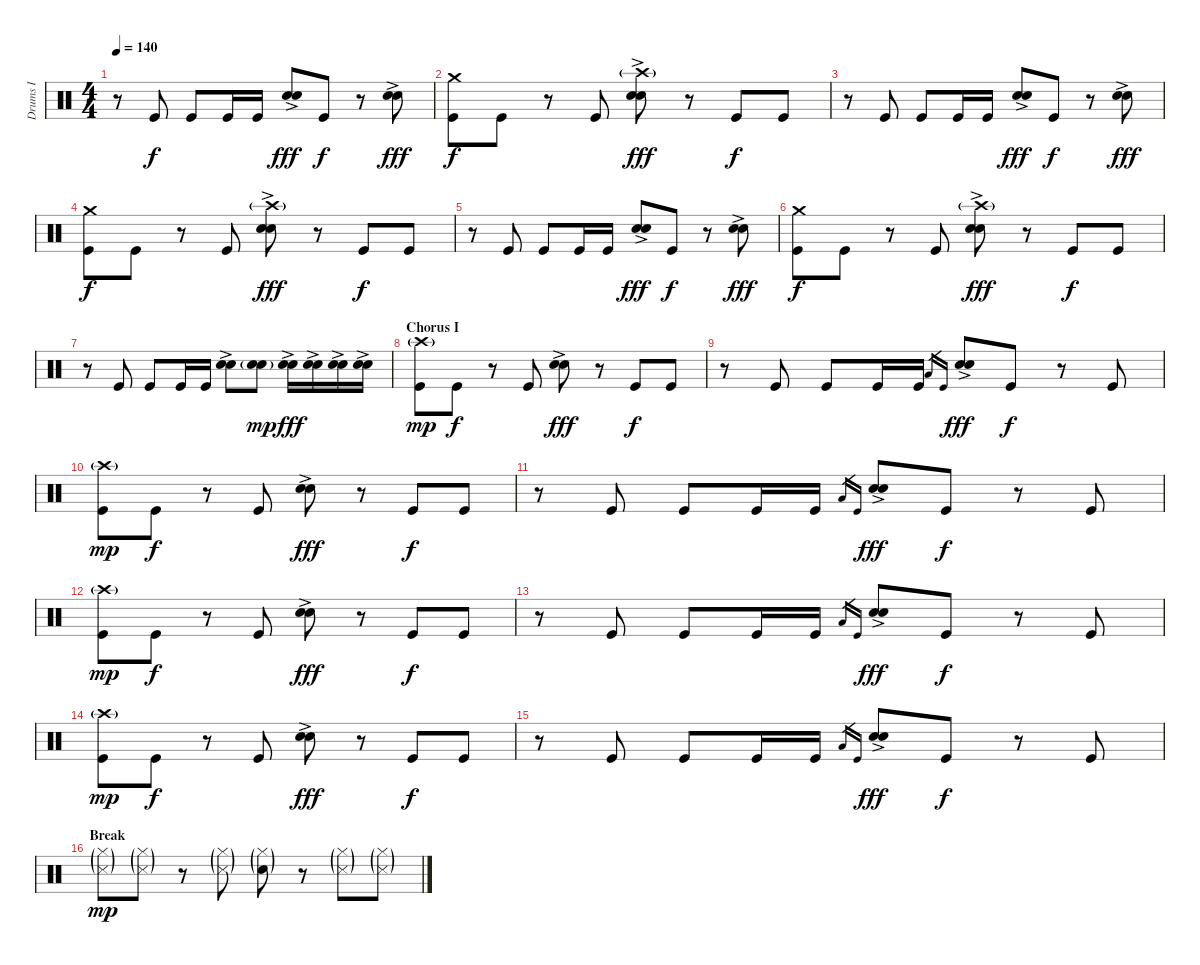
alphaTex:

\track ("Drums I" "Drums I") {instrument percussion}
\staff {score}
\articulation defaults
\ts (4 4)
\tempo 140
\clef neutral
\ks c
r.8{dy f} "Kick (hit)".8 "Kick (hit)".8 "Kick (hit)".16 "Kick (hit)".16 ("Electric Snare (hit)" "Snare (hit) 2"{ac}).8{dy fff} "Kick (hit)".8{dy f} r.8 ("Electric Snare (hit)" "Snare (hit) 2"{ac}).8{dy fff} |
("Crash medium (hit)" "Kick (hit)").8{dy f} "Kick (hit)".8 r.8 "Kick (hit)".8 ("Crash high (hit)"{g} "Electric Snare (hit)" "Snare (hit) 2"{ac}).8{dy fff} r.8 "Kick (hit)".8{dy f} "Kick (hit)".8 |
r.8 "Kick (hit)".8 "Kick (hit)".8 "Kick (hit)".16 "Kick (hit)".16 ("Electric Snare (hit)" "Snare (hit) 2"{ac}).8{dy fff} "Kick (hit)".8{dy f} r.8 ("Electric Snare (hit)" "Snare (hit) 2"{ac}).8{dy fff} |
("Crash medium (hit)" "Kick (hit)").8{dy f} "Kick (hit)".8 r.8 "Kick (hit)".8 ("Crash high (hit)"{g} "Electric Snare (hit)" "Snare (hit) 2"{ac}).8{dy fff} r.8 "Kick (hit)".8{dy f} "Kick (hit)".8 |
r.8 "Kick (hit)".8 "Kick (hit)".8 "Kick (hit)".16 "Kick (hit)".16 ("Electric Snare (hit)" "Snare (hit) 2"{ac}).8{dy fff} "Kick (hit)".8{dy f} r.8 ("Electric Snare (hit)" "Snare (hit) 2"{ac}).8{dy fff} |
("Crash medium (hit)" "Kick (hit)").8{dy f} "Kick (hit)".8 r.8 "Kick (hit)".8 ("Crash high (hit)"{g} "Electric Snare (hit)" "Snare (hit) 2"{ac}).8{dy fff} r.8 "Kick (hit)".8{dy f} "Kick (hit)".8 |
r.8 "Kick (hit)".8 "Kick (hit)".8 "Kick (hit)".16 "Kick (hit)".16 ("Electric Snare (hit)" "Snare (hit) 2"{ac}).8 ("Electric Snare (hit)"{g} "Snare (hit) 2"{g}).8{dy mp} ("Electric Snare (hit)"{ac} "Snare (hit) 2").16{dy fff} ("Electric Snare (hit)" "Snare (hit) 2"{ac}).16 ("Electric Snare (hit)"{ac} "Snare (hit) 2").16 ("Electric Snare (hit)"{ac} "Snare (hit) 2").16 |
\section ("" "Chorus I")
("Crash high (hit)"{g} "Kick (hit)").8{dy mp} "Kick (hit)".8{dy f} r.8 "Kick (hit)".8 ("Electric Snare (hit)"{ac} "Snare (hit) 2").8{dy fff} r.8 "Kick (hit)".8{dy f} "Kick (hit)".8 |
r.8 "Kick (hit)".8 "Kick (hit)".8 "Kick (hit)".16 "Kick (hit)".16 "Low Floor Tom (hit)".16{gr} "Kick (hit)".16{gr} ("Electric Snare (hit)"{ac} "Snare (hit) 2").8{dy fff} "Kick (hit)".8{dy f} r.8 "Kick (hit)".8 |
("Crash high (hit)"{g} "Kick (hit)").8{dy mp} "Kick (hit)".8{dy f} r.8 "Kick (hit)".8 ("Electric Snare (hit)"{ac} "Snare (hit) 2").8{dy fff} r.8 "Kick (hit)".8{dy f} "Kick (hit)".8 |
r.8 "Kick (hit)".8 "Kick (hit)".8 "Kick (hit)".16 "Kick (hit)".16 "Low Floor Tom (hit)".16{gr} "Kick (hit)".16{gr} ("Electric Snare (hit)"{ac} "Snare (hit) 2").8{dy fff} "Kick (hit)".8{dy f} r.8 "Kick (hit)".8 |
("Crash high (hit)"{g} "Kick (hit)").8{dy mp} "Kick (hit)".8{dy f} r.8 "Kick (hit)".8 ("Electric Snare (hit)"{ac} "Snare (hit) 2").8{dy fff} r.8 "Kick (hit)".8{dy f} "Kick (hit)".8 |
r.8 "Kick (hit)".8 "Kick (hit)".8 "Kick (hit)".16 "Kick (hit)".16 "Low Floor Tom (hit)".16{gr} "Kick (hit)".16{gr} ("Electric Snare (hit)"{ac} "Snare (hit) 2").8{dy fff} "Kick (hit)".8{dy f} r.8 "Kick (hit)".8 |
("Crash high (hit)"{g} "Kick (hit)").8{dy mp} "Kick (hit)".8{dy f} r.8 "Kick (hit)".8 ("Electric Snare (hit)"{ac} "Snare (hit) 2").8{dy fff} r.8 "Kick (hit)".8{dy f} "Kick (hit)".8 |
r.8 "Kick (hit)".8 "Kick (hit)".8 "Kick (hit)".16 "Kick (hit)".16 "Low Floor Tom (hit)".16{gr} "Kick (hit)".16{gr} ("Electric Snare (hit)"{ac} "Snare (hit) 2").8{dy fff} "Kick (hit)".8{dy f} r.8 "Kick (hit)".8 |
\section ("" "Break")
("Hi-Hat (closed)"{g} "Snare (side stick) 3"{g}).8{dy mp} ("Hi-Hat (closed)"{g} "Snare (side stick) 3"{g}).8 r.8 ("Hi-Hat (closed)"{g} "Snare (side stick) 3"{g}).8 ("Hi-Hat (closed)"{g} "Hand Clap (hit)"{g}).8 r.8 ("Hi-Hat (closed)"{g} "Snare (side stick) 3"{g}).8 ("Hi-Hat (closed)"{g} "Snare (side stick) 3"{g}).8
